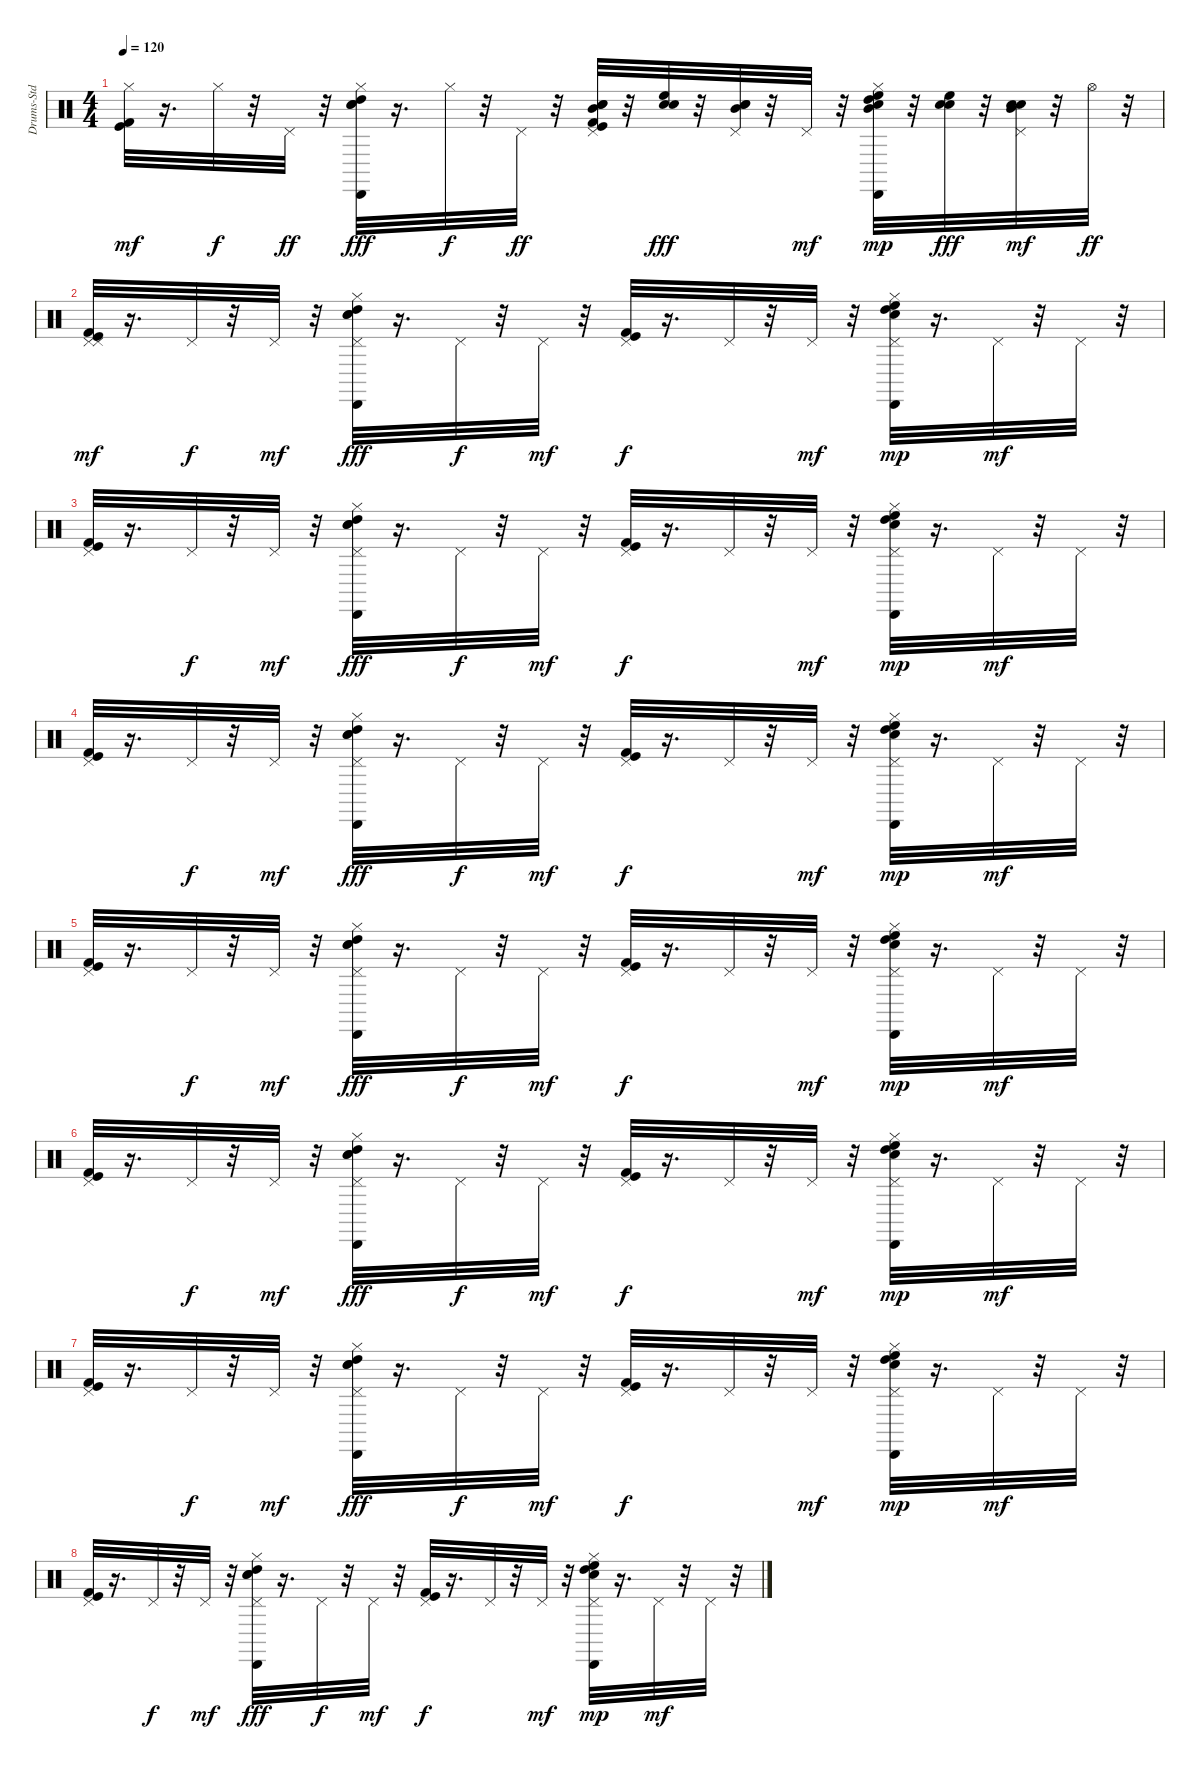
\track ("Drums-Std" "Drums-Std") {instrument percussion}
\staff {score}
\articulation defaults
\ts (4 4)
\tempo 120
\clef neutral
\ks c
("Hi-Hat (closed)" "Kick (hit) 2" "Kick (hit)").32{dy mf} r.16{d} "Hi-Hat (closed)".32{dy f} r.32 "Pedal Hi-Hat (hit)".32{dy ff} r.32 ("Snare (hit) 2" "High Tom (hit)" "Cabasa (hit)" "Hi-Hat (closed)" "Electric Snare (hit)").32{dy fff} r.16{d} "Hi-Hat (closed)".32{dy f} r.32 "Pedal Hi-Hat (hit)".32{dy ff} r.32 ("Snare (hit) 2" "Mid Tom (hit)" "Electric Snare (hit)" "Pedal Hi-Hat (hit)" "Kick (hit) 2" "Kick (hit)").32 r.32 ("Snare (hit) 2" "High Floor Tom (hit)" "Electric Snare (hit)").32{dy fff} r.32 ("Snare (hit) 2" "Mid Tom (hit)" "Electric Snare (hit)" "Pedal Hi-Hat (hit)").32 r.32 "Pedal Hi-Hat (hit)".32{dy mf} r.32 ("Snare (hit) 2" "Mid Tom (hit)" "High Floor Tom (hit)" "High Tom (hit)" "Cabasa (hit)" "Hi-Hat (closed)").32{dy mp} r.32 ("Snare (hit) 2" "High Floor Tom (hit)" "Electric Snare (hit)").32{dy fff} r.32 ("Snare (hit) 2" "Mid Tom (hit)" "Electric Snare (hit)" "Pedal Hi-Hat (hit)").32{dy mf} r.32 "Hi-Hat (open)".32{dy ff} r.32 |
("Pedal Hi-Hat (hit)" "Pedal Hi-Hat (hit)" "Kick (hit) 2" "Kick (hit)").32{dy mf} r.16{d} "Pedal Hi-Hat (hit)".32{dy f} r.32 "Pedal Hi-Hat (hit)".32{dy mf} r.32 ("Snare (hit) 2" "High Tom (hit)" "Cabasa (hit)" "Hi-Hat (closed)" "Pedal Hi-Hat (hit)" "Electric Snare (hit)").32{dy fff} r.16{d} "Pedal Hi-Hat (hit)".32{dy f} r.32 "Pedal Hi-Hat (hit)".32{dy mf} r.32 ("Pedal Hi-Hat (hit)" "Kick (hit) 2" "Kick (hit)").32{dy f} r.16{d} "Pedal Hi-Hat (hit)".32 r.32 "Pedal Hi-Hat (hit)".32{dy mf} r.32 ("Snare (hit) 2" "High Floor Tom (hit)" "High Tom (hit)" "Cabasa (hit)" "Hi-Hat (closed)" "Pedal Hi-Hat (hit)").32{dy mp} r.16{d} "Pedal Hi-Hat (hit)".32{dy mf} r.32 "Pedal Hi-Hat (hit)".32 r.32 |
("Pedal Hi-Hat (hit)" "Kick (hit) 2" "Kick (hit)").32 r.16{d} "Pedal Hi-Hat (hit)".32{dy f} r.32 "Pedal Hi-Hat (hit)".32{dy mf} r.32 ("Snare (hit) 2" "High Tom (hit)" "Cabasa (hit)" "Hi-Hat (closed)" "Pedal Hi-Hat (hit)" "Electric Snare (hit)").32{dy fff} r.16{d} "Pedal Hi-Hat (hit)".32{dy f} r.32 "Pedal Hi-Hat (hit)".32{dy mf} r.32 ("Pedal Hi-Hat (hit)" "Kick (hit) 2" "Kick (hit)").32{dy f} r.16{d} "Pedal Hi-Hat (hit)".32 r.32 "Pedal Hi-Hat (hit)".32{dy mf} r.32 ("Snare (hit) 2" "High Floor Tom (hit)" "High Tom (hit)" "Cabasa (hit)" "Hi-Hat (closed)" "Pedal Hi-Hat (hit)").32{dy mp} r.16{d} "Pedal Hi-Hat (hit)".32{dy mf} r.32 "Pedal Hi-Hat (hit)".32 r.32 |
("Pedal Hi-Hat (hit)" "Kick (hit) 2" "Kick (hit)").32 r.16{d} "Pedal Hi-Hat (hit)".32{dy f} r.32 "Pedal Hi-Hat (hit)".32{dy mf} r.32 ("Snare (hit) 2" "High Tom (hit)" "Cabasa (hit)" "Hi-Hat (closed)" "Pedal Hi-Hat (hit)" "Electric Snare (hit)").32{dy fff} r.16{d} "Pedal Hi-Hat (hit)".32{dy f} r.32 "Pedal Hi-Hat (hit)".32{dy mf} r.32 ("Pedal Hi-Hat (hit)" "Kick (hit) 2" "Kick (hit)").32{dy f} r.16{d} "Pedal Hi-Hat (hit)".32 r.32 "Pedal Hi-Hat (hit)".32{dy mf} r.32 ("Snare (hit) 2" "High Floor Tom (hit)" "High Tom (hit)" "Cabasa (hit)" "Hi-Hat (closed)" "Pedal Hi-Hat (hit)").32{dy mp} r.16{d} "Pedal Hi-Hat (hit)".32{dy mf} r.32 "Pedal Hi-Hat (hit)".32 r.32 |
("Pedal Hi-Hat (hit)" "Kick (hit) 2" "Kick (hit)").32 r.16{d} "Pedal Hi-Hat (hit)".32{dy f} r.32 "Pedal Hi-Hat (hit)".32{dy mf} r.32 ("Snare (hit) 2" "High Tom (hit)" "Cabasa (hit)" "Hi-Hat (closed)" "Pedal Hi-Hat (hit)" "Electric Snare (hit)").32{dy fff} r.16{d} "Pedal Hi-Hat (hit)".32{dy f} r.32 "Pedal Hi-Hat (hit)".32{dy mf} r.32 ("Pedal Hi-Hat (hit)" "Kick (hit) 2" "Kick (hit)").32{dy f} r.16{d} "Pedal Hi-Hat (hit)".32 r.32 "Pedal Hi-Hat (hit)".32{dy mf} r.32 ("Snare (hit) 2" "High Floor Tom (hit)" "High Tom (hit)" "Cabasa (hit)" "Hi-Hat (closed)" "Pedal Hi-Hat (hit)").32{dy mp} r.16{d} "Pedal Hi-Hat (hit)".32{dy mf} r.32 "Pedal Hi-Hat (hit)".32 r.32 |
("Pedal Hi-Hat (hit)" "Kick (hit) 2" "Kick (hit)").32 r.16{d} "Pedal Hi-Hat (hit)".32{dy f} r.32 "Pedal Hi-Hat (hit)".32{dy mf} r.32 ("Snare (hit) 2" "High Tom (hit)" "Cabasa (hit)" "Hi-Hat (closed)" "Pedal Hi-Hat (hit)" "Electric Snare (hit)").32{dy fff} r.16{d} "Pedal Hi-Hat (hit)".32{dy f} r.32 "Pedal Hi-Hat (hit)".32{dy mf} r.32 ("Pedal Hi-Hat (hit)" "Kick (hit) 2" "Kick (hit)").32{dy f} r.16{d} "Pedal Hi-Hat (hit)".32 r.32 "Pedal Hi-Hat (hit)".32{dy mf} r.32 ("Snare (hit) 2" "High Floor Tom (hit)" "High Tom (hit)" "Cabasa (hit)" "Hi-Hat (closed)" "Pedal Hi-Hat (hit)").32{dy mp} r.16{d} "Pedal Hi-Hat (hit)".32{dy mf} r.32 "Pedal Hi-Hat (hit)".32 r.32 |
("Pedal Hi-Hat (hit)" "Kick (hit) 2" "Kick (hit)").32 r.16{d} "Pedal Hi-Hat (hit)".32{dy f} r.32 "Pedal Hi-Hat (hit)".32{dy mf} r.32 ("Snare (hit) 2" "High Tom (hit)" "Cabasa (hit)" "Hi-Hat (closed)" "Pedal Hi-Hat (hit)" "Electric Snare (hit)").32{dy fff} r.16{d} "Pedal Hi-Hat (hit)".32{dy f} r.32 "Pedal Hi-Hat (hit)".32{dy mf} r.32 ("Pedal Hi-Hat (hit)" "Kick (hit) 2" "Kick (hit)").32{dy f} r.16{d} "Pedal Hi-Hat (hit)".32 r.32 "Pedal Hi-Hat (hit)".32{dy mf} r.32 ("Snare (hit) 2" "High Floor Tom (hit)" "High Tom (hit)" "Cabasa (hit)" "Hi-Hat (closed)" "Pedal Hi-Hat (hit)").32{dy mp} r.16{d} "Pedal Hi-Hat (hit)".32{dy mf} r.32 "Pedal Hi-Hat (hit)".32 r.32 |
("Pedal Hi-Hat (hit)" "Kick (hit) 2" "Kick (hit)").32 r.16{d} "Pedal Hi-Hat (hit)".32{dy f} r.32 "Pedal Hi-Hat (hit)".32{dy mf} r.32 ("Snare (hit) 2" "High Tom (hit)" "Cabasa (hit)" "Hi-Hat (closed)" "Pedal Hi-Hat (hit)" "Electric Snare (hit)").32{dy fff} r.16{d} "Pedal Hi-Hat (hit)".32{dy f} r.32 "Pedal Hi-Hat (hit)".32{dy mf} r.32 ("Pedal Hi-Hat (hit)" "Kick (hit) 2" "Kick (hit)").32{dy f} r.16{d} "Pedal Hi-Hat (hit)".32 r.32 "Pedal Hi-Hat (hit)".32{dy mf} r.32 ("Snare (hit) 2" "High Floor Tom (hit)" "High Tom (hit)" "Cabasa (hit)" "Hi-Hat (closed)" "Pedal Hi-Hat (hit)").32{dy mp} r.16{d} "Pedal Hi-Hat (hit)".32{dy mf} r.32 "Pedal Hi-Hat (hit)".32 r.32
